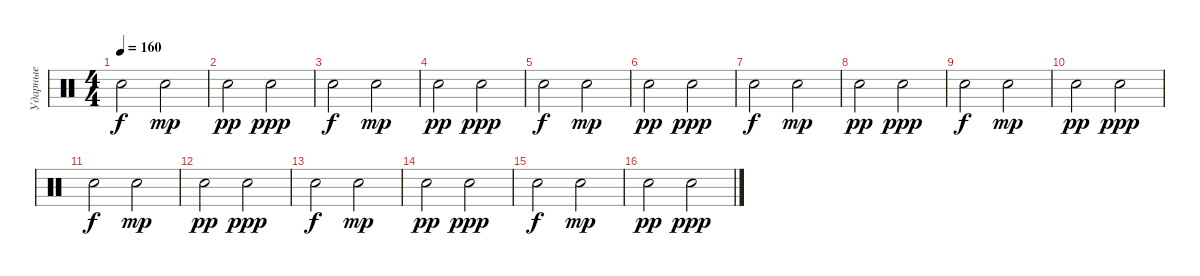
\track ("Ударные" "Ударные") {instrument percussion}
\staff {score}
\articulation defaults
\ts (4 4)
\tempo 160
\clef neutral
\ks c "Snare (hit) 2".2{dy f} "Snare (hit) 2".2{dy mp}
|
"Snare (hit) 2".2{dy pp} "Snare (hit) 2".2{dy ppp} |
"Snare (hit) 2".2{dy f} "Snare (hit) 2".2{dy mp} |
"Snare (hit) 2".2{dy pp} "Snare (hit) 2".2{dy ppp} |
"Snare (hit) 2".2{dy f} "Snare (hit) 2".2{dy mp} |
"Snare (hit) 2".2{dy pp} "Snare (hit) 2".2{dy ppp} |
"Snare (hit) 2".2{dy f} "Snare (hit) 2".2{dy mp} |
"Snare (hit) 2".2{dy pp} "Snare (hit) 2".2{dy ppp} |
"Snare (hit) 2".2{dy f} "Snare (hit) 2".2{dy mp} |
"Snare (hit) 2".2{dy pp} "Snare (hit) 2".2{dy ppp} |
"Snare (hit) 2".2{dy f} "Snare (hit) 2".2{dy mp} |
"Snare (hit) 2".2{dy pp} "Snare (hit) 2".2{dy ppp} |
"Snare (hit) 2".2{dy f} "Snare (hit) 2".2{dy mp} |
"Snare (hit) 2".2{dy pp} "Snare (hit) 2".2{dy ppp} |
"Snare (hit) 2".2{dy f} "Snare (hit) 2".2{dy mp} |
"Snare (hit) 2".2{dy pp} "Snare (hit) 2".2{dy ppp}
